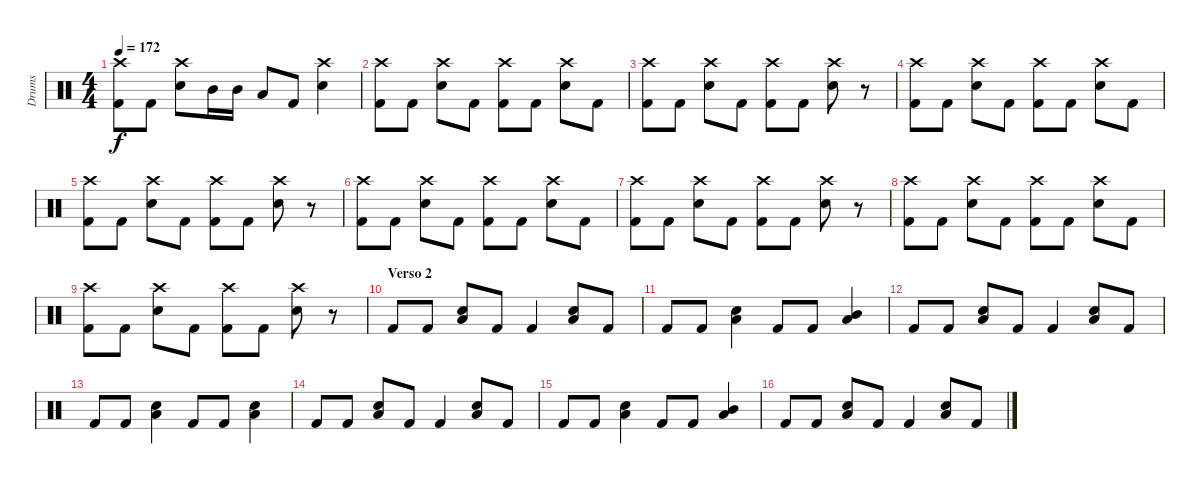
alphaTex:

\track ("Drums" "Drums") {instrument percussion}
\staff {score}
\articulation defaults
\ts (4 4)
\tempo 172
\clef neutral
\ks c
("Crash high (hit)" "Kick (hit) 2").8{dy f} "Kick (hit) 2".8 ("Crash high (hit)" "Electric Snare (hit)").8 "Mid Tom (hit)".16 "Mid Tom (hit)".16 "Low Tom (hit)".8 "Kick (hit) 2".8 ("Crash high (hit)" "Electric Snare (hit)").4 |
("Crash high (hit)" "Kick (hit) 2").8 "Kick (hit) 2".8 ("Crash high (hit)" "Electric Snare (hit)").8 "Kick (hit) 2".8 ("Crash high (hit)" "Kick (hit) 2").8 "Kick (hit) 2".8 ("Crash high (hit)" "Electric Snare (hit)").8 "Kick (hit) 2".8 |
("Crash high (hit)" "Kick (hit) 2").8 "Kick (hit) 2".8 ("Crash high (hit)" "Electric Snare (hit)").8 "Kick (hit) 2".8 ("Crash high (hit)" "Kick (hit) 2").8 "Kick (hit) 2".8 ("Crash high (hit)" "Electric Snare (hit)").8 r.8 |
("Crash high (hit)" "Kick (hit) 2").8 "Kick (hit) 2".8 ("Crash high (hit)" "Electric Snare (hit)").8 "Kick (hit) 2".8 ("Crash high (hit)" "Kick (hit) 2").8 "Kick (hit) 2".8 ("Crash high (hit)" "Electric Snare (hit)").8 "Kick (hit) 2".8 |
("Crash high (hit)" "Kick (hit) 2").8 "Kick (hit) 2".8 ("Crash high (hit)" "Electric Snare (hit)").8 "Kick (hit) 2".8 ("Crash high (hit)" "Kick (hit) 2").8 "Kick (hit) 2".8 ("Crash high (hit)" "Electric Snare (hit)").8 r.8 |
("Crash high (hit)" "Kick (hit) 2").8 "Kick (hit) 2".8 ("Crash high (hit)" "Electric Snare (hit)").8 "Kick (hit) 2".8 ("Crash high (hit)" "Kick (hit) 2").8 "Kick (hit) 2".8 ("Crash high (hit)" "Electric Snare (hit)").8 "Kick (hit) 2".8 |
("Crash high (hit)" "Kick (hit) 2").8 "Kick (hit) 2".8 ("Crash high (hit)" "Electric Snare (hit)").8 "Kick (hit) 2".8 ("Crash high (hit)" "Kick (hit) 2").8 "Kick (hit) 2".8 ("Crash high (hit)" "Electric Snare (hit)").8 r.8 |
("Crash high (hit)" "Kick (hit) 2").8 "Kick (hit) 2".8 ("Crash high (hit)" "Electric Snare (hit)").8 "Kick (hit) 2".8 ("Crash high (hit)" "Kick (hit) 2").8 "Kick (hit) 2".8 ("Crash high (hit)" "Electric Snare (hit)").8 "Kick (hit) 2".8 |
("Crash high (hit)" "Kick (hit) 2").8 "Kick (hit) 2".8 ("Crash high (hit)" "Electric Snare (hit)").8 "Kick (hit) 2".8 ("Crash high (hit)" "Kick (hit) 2").8 "Kick (hit) 2".8 ("Crash high (hit)" "Electric Snare (hit)").8 r.8 |
\section ("" "Verso 2")
"Kick (hit) 2".8 "Kick (hit) 2".8 ("Electric Snare (hit)" "Low Floor Tom (hit)").8 "Kick (hit) 2".8 "Kick (hit) 2".4 ("Electric Snare (hit)" "Low Floor Tom (hit)").8 "Kick (hit) 2".8 |
"Kick (hit) 2".8 "Kick (hit) 2".8 ("Electric Snare (hit)" "Low Floor Tom (hit)").4 "Kick (hit) 2".8 "Kick (hit) 2".8 ("Low Tom (hit)" "Mid Tom (hit)").4 |
"Kick (hit) 2".8 "Kick (hit) 2".8 ("Electric Snare (hit)" "Low Floor Tom (hit)").8 "Kick (hit) 2".8 "Kick (hit) 2".4 ("Electric Snare (hit)" "Low Floor Tom (hit)").8 "Kick (hit) 2".8 |
"Kick (hit) 2".8 "Kick (hit) 2".8 ("Electric Snare (hit)" "Low Floor Tom (hit)").4 "Kick (hit) 2".8 "Kick (hit) 2".8 ("Electric Snare (hit)" "Low Floor Tom (hit)").4 |
"Kick (hit) 2".8 "Kick (hit) 2".8 ("Electric Snare (hit)" "Low Floor Tom (hit)").8 "Kick (hit) 2".8 "Kick (hit) 2".4 ("Electric Snare (hit)" "Low Floor Tom (hit)").8 "Kick (hit) 2".8 |
"Kick (hit) 2".8 "Kick (hit) 2".8 ("Electric Snare (hit)" "Low Floor Tom (hit)").4 "Kick (hit) 2".8 "Kick (hit) 2".8 ("Low Tom (hit)" "Mid Tom (hit)").4 |
"Kick (hit) 2".8 "Kick (hit) 2".8 ("Electric Snare (hit)" "Low Floor Tom (hit)").8 "Kick (hit) 2".8 "Kick (hit) 2".4 ("Electric Snare (hit)" "Low Floor Tom (hit)").8 "Kick (hit) 2".8
